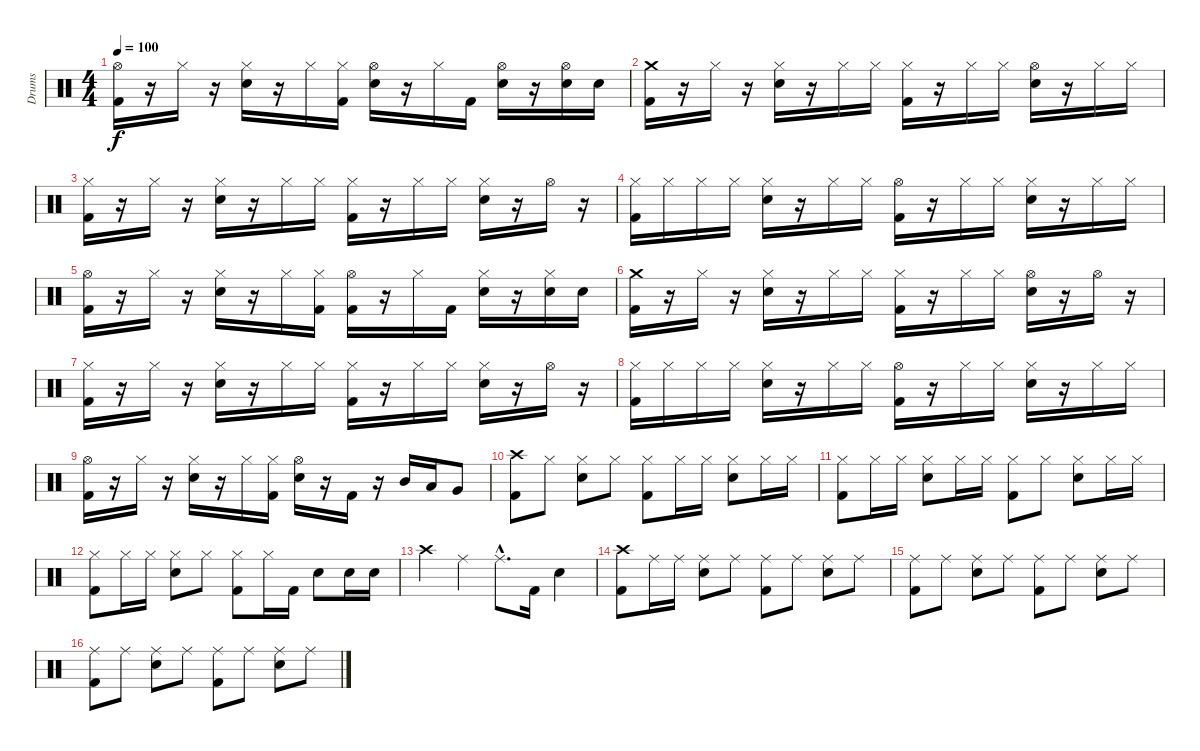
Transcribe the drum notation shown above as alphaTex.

\track ("Drums" "Drums") {instrument percussion}
\staff {score}
\articulation defaults
\ts (4 4)
\tempo 100
\clef neutral
\ks c
("Hi-Hat (open)" "Kick (hit) 2").16{dy f} r.16 "Hi-Hat (closed)".16 r.16 ("Hi-Hat (closed)" "Snare (hit) 2").16 r.16 "Hi-Hat (closed)".16 ("Hi-Hat (closed)" "Kick (hit) 2").16 ("Hi-Hat (open)" "Snare (hit) 2").16 r.16 "Hi-Hat (closed)".16 "Kick (hit) 2".16 ("Hi-Hat (open)" "Snare (hit) 2").16 r.16 ("Hi-Hat (open)" "Snare (hit) 2").16 "Snare (hit) 2".16 |
("Crash medium (hit)" "Kick (hit) 2").16 r.16 "Hi-Hat (closed)".16 r.16 ("Hi-Hat (closed)" "Snare (hit) 2").16 r.16 "Hi-Hat (closed)".16 "Hi-Hat (closed)".16 ("Hi-Hat (closed)" "Kick (hit) 2").16 r.16 "Hi-Hat (closed)".16 "Hi-Hat (closed)".16 ("Hi-Hat (open)" "Snare (hit) 2").16 r.16 "Hi-Hat (closed)".16 "Hi-Hat (closed)".16 |
("Hi-Hat (closed)" "Kick (hit) 2").16 r.16 "Hi-Hat (closed)".16 r.16 ("Hi-Hat (closed)" "Snare (hit) 2").16 r.16 "Hi-Hat (closed)".16 "Hi-Hat (closed)".16 ("Hi-Hat (closed)" "Kick (hit) 2").16 r.16 "Hi-Hat (closed)".16 "Hi-Hat (closed)".16 ("Hi-Hat (closed)" "Snare (hit) 2").16 r.16 "Hi-Hat (open)".16 r.16 |
("Hi-Hat (closed)" "Kick (hit) 2").16 "Hi-Hat (closed)".16 "Hi-Hat (closed)".16 "Hi-Hat (closed)".16 ("Hi-Hat (closed)" "Snare (hit) 2").16 r.16 "Hi-Hat (closed)".16 "Hi-Hat (closed)".16 ("Hi-Hat (open)" "Kick (hit) 2").16 r.16 "Hi-Hat (closed)".16 "Hi-Hat (closed)".16 ("Hi-Hat (closed)" "Snare (hit) 2").16 r.16 "Hi-Hat (closed)".16 "Hi-Hat (closed)".16 |
("Hi-Hat (open)" "Kick (hit) 2").16 r.16 "Hi-Hat (closed)".16 r.16 ("Hi-Hat (closed)" "Snare (hit) 2").16 r.16 "Hi-Hat (closed)".16 ("Hi-Hat (closed)" "Kick (hit) 2").16 ("Hi-Hat (open)" "Kick (hit) 2").16 r.16 "Hi-Hat (closed)".16 "Kick (hit) 2".16 ("Hi-Hat (closed)" "Snare (hit) 2").16 r.16 ("Hi-Hat (closed)" "Snare (hit) 2").16 "Snare (hit) 2".16 |
("Crash medium (hit)" "Kick (hit) 2").16 r.16 "Hi-Hat (closed)".16 r.16 ("Hi-Hat (closed)" "Snare (hit) 2").16 r.16 "Hi-Hat (closed)".16 "Hi-Hat (closed)".16 ("Hi-Hat (closed)" "Kick (hit) 2").16 r.16 "Hi-Hat (closed)".16 "Hi-Hat (closed)".16 ("Hi-Hat (open)" "Snare (hit) 2").16 r.16 "Hi-Hat (open)".16 r.16 |
("Hi-Hat (closed)" "Kick (hit) 2").16 r.16 "Hi-Hat (closed)".16 r.16 ("Hi-Hat (closed)" "Snare (hit) 2").16 r.16 "Hi-Hat (closed)".16 "Hi-Hat (closed)".16 ("Hi-Hat (closed)" "Kick (hit) 2").16 r.16 "Hi-Hat (closed)".16 "Hi-Hat (closed)".16 ("Hi-Hat (closed)" "Snare (hit) 2").16 r.16 "Hi-Hat (open)".16 r.16 |
("Hi-Hat (closed)" "Kick (hit) 2").16 "Hi-Hat (closed)".16 "Hi-Hat (closed)".16 "Hi-Hat (closed)".16 ("Hi-Hat (closed)" "Snare (hit) 2").16 r.16 "Hi-Hat (closed)".16 "Hi-Hat (closed)".16 ("Hi-Hat (open)" "Kick (hit) 2").16 r.16 "Hi-Hat (closed)".16 "Hi-Hat (closed)".16 ("Hi-Hat (closed)" "Snare (hit) 2").16 r.16 "Hi-Hat (closed)".16 "Hi-Hat (closed)".16 |
("Hi-Hat (open)" "Kick (hit) 2").16 r.16 "Hi-Hat (closed)".16 r.16 ("Hi-Hat (closed)" "Snare (hit) 2").16 r.16 "Hi-Hat (closed)".16 ("Hi-Hat (closed)" "Kick (hit) 2").16 ("Hi-Hat (open)" "Snare (hit) 2").16 r.16 "Kick (hit) 2".16 r.16 "Mid Tom (hit)".16 "Low Tom (hit)".16 "Very Low Tom (hit)".8 |
("Crash high (hit)" "Kick (hit) 2").8 "Hi-Hat (closed)".8 ("Hi-Hat (closed)" "Snare (hit) 2").8 "Hi-Hat (closed)".8 ("Hi-Hat (closed)" "Kick (hit) 2").8 "Hi-Hat (closed)".16 "Hi-Hat (closed)".16 ("Hi-Hat (closed)" "Snare (hit) 2").8 "Hi-Hat (closed)".16 "Hi-Hat (closed)".16 |
("Hi-Hat (closed)" "Kick (hit) 2").8 "Hi-Hat (closed)".16 "Hi-Hat (closed)".16 ("Hi-Hat (closed)" "Snare (hit) 2").8 "Hi-Hat (closed)".16 "Hi-Hat (closed)".16 ("Hi-Hat (closed)" "Kick (hit) 2").8 "Hi-Hat (closed)".8 ("Hi-Hat (closed)" "Snare (hit) 2").8 "Hi-Hat (closed)".16 "Hi-Hat (closed)".16 |
("Hi-Hat (closed)" "Kick (hit) 2").8 "Hi-Hat (closed)".16 "Hi-Hat (closed)".16 ("Hi-Hat (closed)" "Snare (hit) 2").8 "Hi-Hat (closed)".8 ("Hi-Hat (closed)" "Kick (hit) 2").8 "Hi-Hat (closed)".16 "Kick (hit) 2".16 "Snare (hit) 2".8 "Snare (hit) 2".16 "Snare (hit) 2".16 |
"Crash high (hit)".4 "Ride (middle)".4 "Ride (middle)"{hac}.8{d} "Kick (hit) 2".16 "Snare (hit) 2".4 |
("Crash high (hit)" "Kick (hit) 2").8 "Ride (middle)".16 "Ride (middle)".16 ("Ride (middle)" "Snare (hit) 2").8 "Ride (middle)".8 ("Ride (middle)" "Kick (hit) 2").8 "Ride (middle)".8 ("Ride (middle)" "Snare (hit) 2").8 "Ride (middle)".8 |
("Ride (middle)" "Kick (hit) 2").8 "Ride (middle)".8 ("Ride (middle)" "Snare (hit) 2").8 "Ride (middle)".8 ("Ride (middle)" "Kick (hit) 2").8 "Ride (middle)".8 ("Ride (middle)" "Snare (hit) 2").8 "Ride (middle)".8 |
("Ride (middle)" "Kick (hit) 2").8 "Ride (middle)".8 ("Ride (middle)" "Snare (hit) 2").8 "Ride (middle)".8 ("Ride (middle)" "Kick (hit) 2").8 "Ride (middle)".8 ("Ride (middle)" "Snare (hit) 2").8 "Ride (middle)".8
